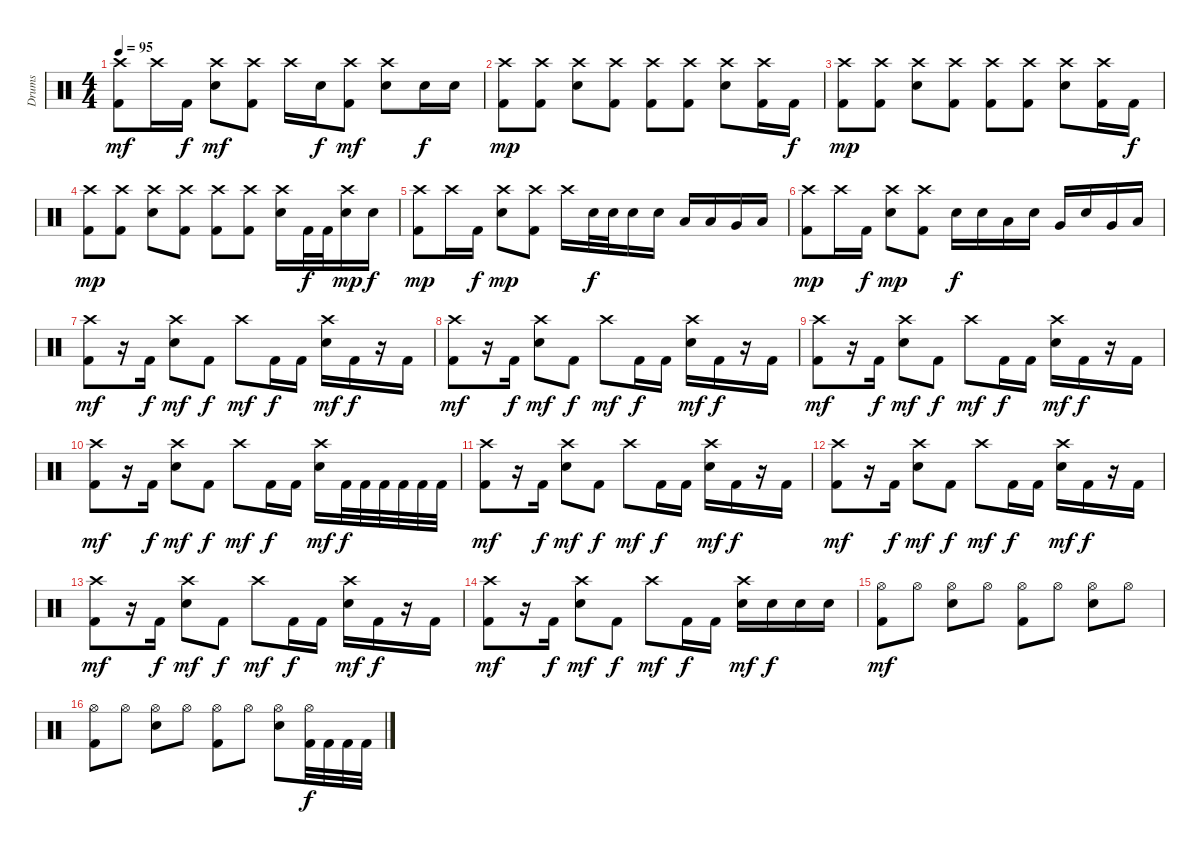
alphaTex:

\track ("Drums" "Drums") {instrument percussion}
\staff {score}
\articulation defaults
\ts (4 4)
\tempo 95
\clef neutral
\ks c
("Crash high (hit)" "Kick (hit) 2").8{dy mf} "Crash high (hit)".16 "Kick (hit) 2".16{dy f} ("Crash high (hit)" "Electric Snare (hit)").8{dy mf} ("Crash high (hit)" "Kick (hit) 2").8 "Crash high (hit)".16 "Electric Snare (hit)".16{dy f} ("Crash high (hit)" "Kick (hit) 2").8{dy mf} ("Crash high (hit)" "Electric Snare (hit)").8 "Electric Snare (hit)".16{dy f} "Electric Snare (hit)".16 |
("Crash high (hit)" "Kick (hit) 2").8{dy mp} ("Crash high (hit)" "Kick (hit) 2").8 ("Crash high (hit)" "Electric Snare (hit)").8 ("Crash high (hit)" "Kick (hit) 2").8 ("Crash high (hit)" "Kick (hit) 2").8 ("Crash high (hit)" "Kick (hit) 2").8 ("Crash high (hit)" "Electric Snare (hit)").8 ("Crash high (hit)" "Kick (hit) 2").16 "Kick (hit) 2".16{dy f} |
("Crash high (hit)" "Kick (hit) 2").8{dy mp} ("Crash high (hit)" "Kick (hit) 2").8 ("Crash high (hit)" "Electric Snare (hit)").8 ("Crash high (hit)" "Kick (hit) 2").8 ("Crash high (hit)" "Kick (hit) 2").8 ("Crash high (hit)" "Kick (hit) 2").8 ("Crash high (hit)" "Electric Snare (hit)").8 ("Crash high (hit)" "Kick (hit) 2").16 "Kick (hit) 2".16{dy f} |
("Crash high (hit)" "Kick (hit) 2").8{dy mp} ("Crash high (hit)" "Kick (hit) 2").8 ("Crash high (hit)" "Electric Snare (hit)").8 ("Crash high (hit)" "Kick (hit) 2").8 ("Crash high (hit)" "Kick (hit) 2").8 ("Crash high (hit)" "Kick (hit) 2").8 ("Crash high (hit)" "Electric Snare (hit)").16 "Kick (hit) 2".32{dy f} "Kick (hit) 2".32 ("Crash high (hit)" "Electric Snare (hit)").16{dy mp} "Electric Snare (hit)".16{dy f} |
("Crash high (hit)" "Kick (hit) 2").8{dy mp} "Crash high (hit)".16 "Kick (hit) 2".16{dy f} ("Crash high (hit)" "Electric Snare (hit)").8{dy mp} ("Crash high (hit)" "Kick (hit) 2").8 "Crash high (hit)".16 "Electric Snare (hit)".32{dy f} "Electric Snare (hit)".32 "Electric Snare (hit)".16 "Electric Snare (hit)".16 "Low Tom (hit)".16 "Low Tom (hit)".16 "Very Low Tom (hit)".16 "Low Floor Tom (hit)".16 |
("Crash high (hit)" "Kick (hit) 2").8{dy mp} "Crash high (hit)".16 "Kick (hit) 2".16{dy f} ("Crash high (hit)" "Electric Snare (hit)").8{dy mp} ("Crash high (hit)" "Kick (hit) 2").8 "Electric Snare (hit)".16{dy f} "Electric Snare (hit)".16 "Low Tom (hit)".16 "Electric Snare (hit)".16 "Very Low Tom (hit)".16 "Electric Snare (hit)".16 "Very Low Tom (hit)".16 "Low Floor Tom (hit)".16 |
("Crash high (hit)" "Kick (hit) 2").8{dy mf} r.16 "Kick (hit) 2".16{dy f} ("Crash high (hit)" "Electric Snare (hit)").8{dy mf} "Kick (hit) 2".8{dy f} "Crash high (hit)".8{dy mf} "Kick (hit) 2".16{dy f} "Kick (hit) 2".16 ("Crash high (hit)" "Electric Snare (hit)").16{dy mf} "Kick (hit) 2".16{dy f} r.16 "Kick (hit) 2".16 |
("Crash high (hit)" "Kick (hit) 2").8{dy mf} r.16 "Kick (hit) 2".16{dy f} ("Crash high (hit)" "Electric Snare (hit)").8{dy mf} "Kick (hit) 2".8{dy f} "Crash high (hit)".8{dy mf} "Kick (hit) 2".16{dy f} "Kick (hit) 2".16 ("Crash high (hit)" "Electric Snare (hit)").16{dy mf} "Kick (hit) 2".16{dy f} r.16 "Kick (hit) 2".16 |
("Crash high (hit)" "Kick (hit) 2").8{dy mf} r.16 "Kick (hit) 2".16{dy f} ("Crash high (hit)" "Electric Snare (hit)").8{dy mf} "Kick (hit) 2".8{dy f} "Crash high (hit)".8{dy mf} "Kick (hit) 2".16{dy f} "Kick (hit) 2".16 ("Crash high (hit)" "Electric Snare (hit)").16{dy mf} "Kick (hit) 2".16{dy f} r.16 "Kick (hit) 2".16 |
("Crash high (hit)" "Kick (hit) 2").8{dy mf} r.16 "Kick (hit) 2".16{dy f} ("Crash high (hit)" "Electric Snare (hit)").8{dy mf} "Kick (hit) 2".8{dy f} "Crash high (hit)".8{dy mf} "Kick (hit) 2".16{dy f} "Kick (hit) 2".16 ("Crash high (hit)" "Electric Snare (hit)").16{dy mf} "Kick (hit) 2".32{dy f} "Kick (hit) 2".32 "Kick (hit) 2".32 "Kick (hit) 2".32 "Kick (hit) 2".32 "Kick (hit) 2".32 |
("Crash high (hit)" "Kick (hit) 2").8{dy mf} r.16 "Kick (hit) 2".16{dy f} ("Crash high (hit)" "Electric Snare (hit)").8{dy mf} "Kick (hit) 2".8{dy f} "Crash high (hit)".8{dy mf} "Kick (hit) 2".16{dy f} "Kick (hit) 2".16 ("Crash high (hit)" "Electric Snare (hit)").16{dy mf} "Kick (hit) 2".16{dy f} r.16 "Kick (hit) 2".16 |
("Crash high (hit)" "Kick (hit) 2").8{dy mf} r.16 "Kick (hit) 2".16{dy f} ("Crash high (hit)" "Electric Snare (hit)").8{dy mf} "Kick (hit) 2".8{dy f} "Crash high (hit)".8{dy mf} "Kick (hit) 2".16{dy f} "Kick (hit) 2".16 ("Crash high (hit)" "Electric Snare (hit)").16{dy mf} "Kick (hit) 2".16{dy f} r.16 "Kick (hit) 2".16 |
("Crash high (hit)" "Kick (hit) 2").8{dy mf} r.16 "Kick (hit) 2".16{dy f} ("Crash high (hit)" "Electric Snare (hit)").8{dy mf} "Kick (hit) 2".8{dy f} "Crash high (hit)".8{dy mf} "Kick (hit) 2".16{dy f} "Kick (hit) 2".16 ("Crash high (hit)" "Electric Snare (hit)").16{dy mf} "Kick (hit) 2".16{dy f} r.16 "Kick (hit) 2".16 |
("Crash high (hit)" "Kick (hit) 2").8{dy mf} r.16 "Kick (hit) 2".16{dy f} ("Crash high (hit)" "Electric Snare (hit)").8{dy mf} "Kick (hit) 2".8{dy f} "Crash high (hit)".8{dy mf} "Kick (hit) 2".16{dy f} "Kick (hit) 2".16 ("Crash high (hit)" "Electric Snare (hit)").16{dy mf} "Electric Snare (hit)".16{dy f} "Electric Snare (hit)".16 "Electric Snare (hit)".16 |
("Hi-Hat (open)" "Kick (hit) 2").8{dy mf} "Hi-Hat (open)".8 ("Hi-Hat (open)" "Electric Snare (hit)").8 "Hi-Hat (open)".8 ("Hi-Hat (open)" "Kick (hit) 2").8 "Hi-Hat (open)".8 ("Hi-Hat (open)" "Electric Snare (hit)").8 "Hi-Hat (open)".8 |
("Hi-Hat (open)" "Kick (hit) 2").8 "Hi-Hat (open)".8 ("Hi-Hat (open)" "Electric Snare (hit)").8 "Hi-Hat (open)".8 ("Hi-Hat (open)" "Kick (hit) 2").8 "Hi-Hat (open)".8 ("Hi-Hat (open)" "Electric Snare (hit)").8 ("Hi-Hat (open)" "Kick (hit) 2").32{dy f} "Kick (hit) 2".32 "Kick (hit) 2".32 "Kick (hit) 2".32
